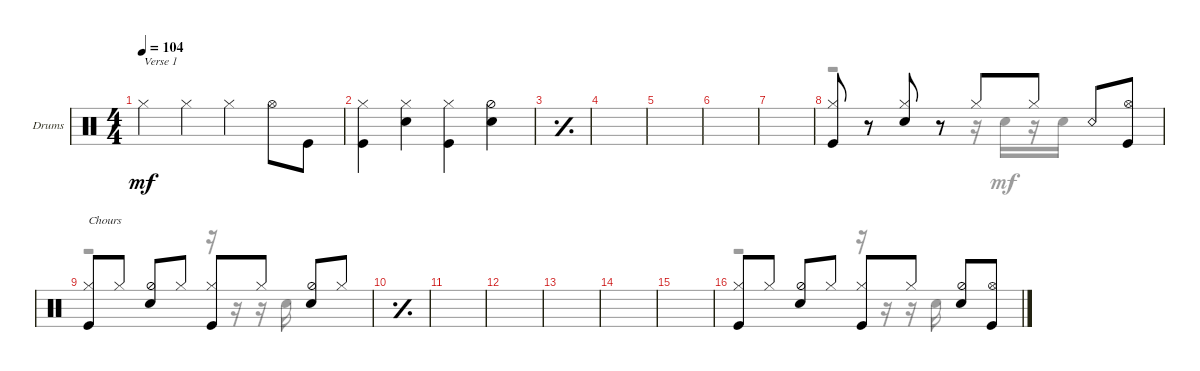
\defaultSystemsLayout 4
\bracketExtendMode groupsimilarinstruments
\firstSystemTrackNameOrientation horizontal
\otherSystemsTrackNameOrientation horizontal
\track ("Алена" "Drums") {instrument percussion}
\staff {score}
\articulation defaults
\voice
\ts (4 4)
\tempo 104
\clef neutral
\ks c "Hi-Hat (closed)".4{txt "Verse 1" dy mf} "Hi-Hat (closed)".4 "Hi-Hat (closed)".4 "Hi-Hat (open)".8 "Kick (hit)".8
|
("Hi-Hat (closed)" "Kick (hit)").4 ("Hi-Hat (closed)" "Snare (hit) 2").4 ("Hi-Hat (closed)" "Kick (hit)").4 ("Hi-Hat (half)" "Snare (hit) 2").4 |
\simile simple
|
|
|
|
|
\simile none
("Hi-Hat (closed)" "Kick (hit)").8 r.8 ("Snare (hit) 2" "Hi-Hat (closed)").8 r.8 "Hi-Hat (closed)".8 "Hi-Hat (closed)".8 "Snare (rim shot)".8 ("Hi-Hat (open)" "Kick (hit)").8 |
("Hi-Hat (closed)" "Kick (hit)").8{txt "Chours"} "Hi-Hat (closed)".8 ("Hi-Hat (half)" "Snare (hit) 2").8 "Hi-Hat (closed)".8 ("Hi-Hat (closed)" "Kick (hit)").8 "Hi-Hat (closed)".8 ("Hi-Hat (half)" "Snare (hit) 2").8 "Hi-Hat (closed)".8 |
\simile simple
|
|
|
|
|
|
\simile none
("Hi-Hat (closed)" "Kick (hit)").8 "Hi-Hat (closed)".8 ("Hi-Hat (half)" "Snare (hit) 2").8 "Hi-Hat (closed)".8 ("Hi-Hat (closed)" "Kick (hit)").8 "Hi-Hat (closed)".8 ("Hi-Hat (half)" "Snare (hit) 2").8 ("Hi-Hat (open)" "Kick (hit)").8
\voice
\clef neutral
\ottava regular
\simile none
\ks c
|
|
\simile simple
|
|
|
|
|
\simile none
r.2 r.16 "Snare (hit) 2".16 r.16 "Snare (hit) 2".16 |
r.2 r.16 r.16 r.16 "Snare (hit) 2".16 |
\simile simple
|
|
|
|
|
|
\simile none
r.2 r.16 r.16 r.16 "Snare (hit) 2".16
